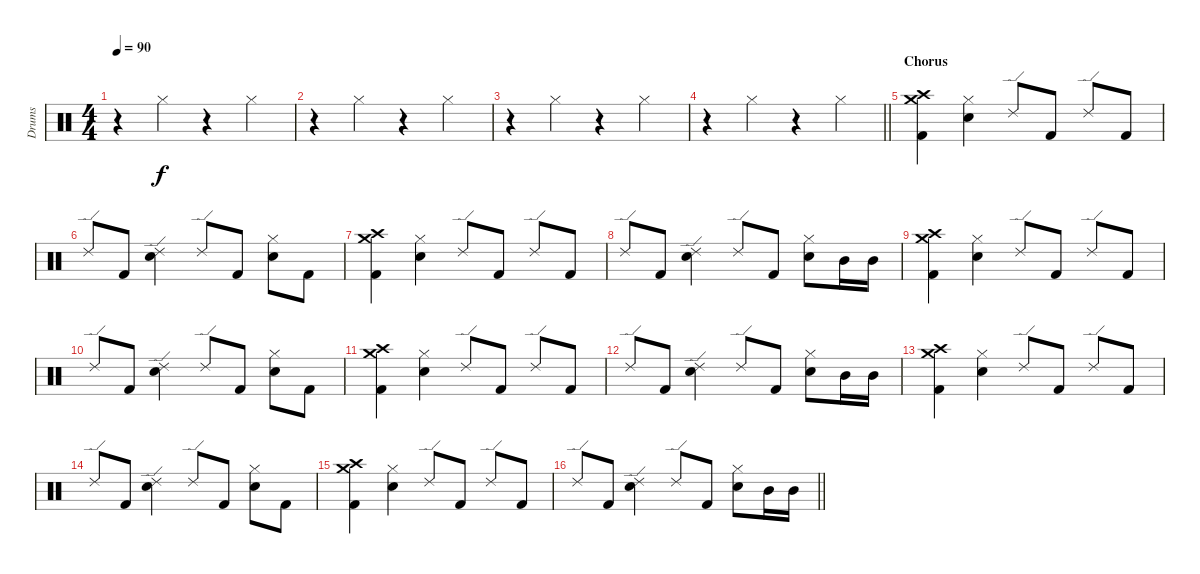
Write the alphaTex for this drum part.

\track ("Drums" "Drums") {instrument percussion}
\staff {score}
\articulation defaults
\ts (4 4)
\tempo 90
\clef neutral
\ks c
r.4{dy f} "Hi-Hat (closed)".4 r.4 "Hi-Hat (closed)".4 |
r.4 "Hi-Hat (closed)".4 r.4 "Hi-Hat (closed)".4 |
r.4 "Hi-Hat (closed)".4 r.4 "Hi-Hat (closed)".4 |
\barLineRight lightlight
r.4 "Hi-Hat (closed)".4 r.4 "Hi-Hat (closed)".4 |
\section ("" "Chorus")
("Crash high (hit)" "Crash medium (hit)" "Kick (hit) 2").4 ("Hi-Hat (closed)" "Snare (hit) 2").4 "Ride (edge) 2".8 "Kick (hit) 2".8 "Ride (edge) 2".8 "Kick (hit) 2".8 |
"Ride (edge) 2".8 "Kick (hit) 2".8 ("Ride (edge) 2" "Snare (hit) 2").4 "Ride (edge) 2".8 "Kick (hit) 2".8 ("Hi-Hat (closed)" "Snare (hit) 2").8 "Kick (hit) 2".8 |
("Crash high (hit)" "Crash medium (hit)" "Kick (hit) 2").4 ("Hi-Hat (closed)" "Snare (hit) 2").4 "Ride (edge) 2".8 "Kick (hit) 2".8 "Ride (edge) 2".8 "Kick (hit) 2".8 |
"Ride (edge) 2".8 "Kick (hit) 2".8 ("Ride (edge) 2" "Snare (hit) 2").4 "Ride (edge) 2".8 "Kick (hit) 2".8 ("Hi-Hat (closed)" "Snare (hit) 2").8 "Mid Tom (hit)".16 "Mid Tom (hit)".16 |
("Crash high (hit)" "Crash medium (hit)" "Kick (hit) 2").4 ("Hi-Hat (closed)" "Snare (hit) 2").4 "Ride (edge) 2".8 "Kick (hit) 2".8 "Ride (edge) 2".8 "Kick (hit) 2".8 |
"Ride (edge) 2".8 "Kick (hit) 2".8 ("Ride (edge) 2" "Snare (hit) 2").4 "Ride (edge) 2".8 "Kick (hit) 2".8 ("Hi-Hat (closed)" "Snare (hit) 2").8 "Kick (hit) 2".8 |
("Crash high (hit)" "Crash medium (hit)" "Kick (hit) 2").4 ("Hi-Hat (closed)" "Snare (hit) 2").4 "Ride (edge) 2".8 "Kick (hit) 2".8 "Ride (edge) 2".8 "Kick (hit) 2".8 |
"Ride (edge) 2".8 "Kick (hit) 2".8 ("Ride (edge) 2" "Snare (hit) 2").4 "Ride (edge) 2".8 "Kick (hit) 2".8 ("Hi-Hat (closed)" "Snare (hit) 2").8 "Mid Tom (hit)".16 "Mid Tom (hit)".16 |
("Crash high (hit)" "Crash medium (hit)" "Kick (hit) 2").4 ("Hi-Hat (closed)" "Snare (hit) 2").4 "Ride (edge) 2".8 "Kick (hit) 2".8 "Ride (edge) 2".8 "Kick (hit) 2".8 |
"Ride (edge) 2".8 "Kick (hit) 2".8 ("Ride (edge) 2" "Snare (hit) 2").4 "Ride (edge) 2".8 "Kick (hit) 2".8 ("Hi-Hat (closed)" "Snare (hit) 2").8 "Kick (hit) 2".8 |
("Crash high (hit)" "Crash medium (hit)" "Kick (hit) 2").4 ("Hi-Hat (closed)" "Snare (hit) 2").4 "Ride (edge) 2".8 "Kick (hit) 2".8 "Ride (edge) 2".8 "Kick (hit) 2".8 |
\barLineRight lightlight "Ride (edge) 2".8 "Kick (hit) 2".8
("Ride (edge) 2" "Snare (hit) 2").4 "Ride (edge) 2".8 "Kick (hit) 2".8 ("Hi-Hat (closed)" "Snare (hit) 2").8 "Mid Tom (hit)".16 "Mid Tom (hit)".16
